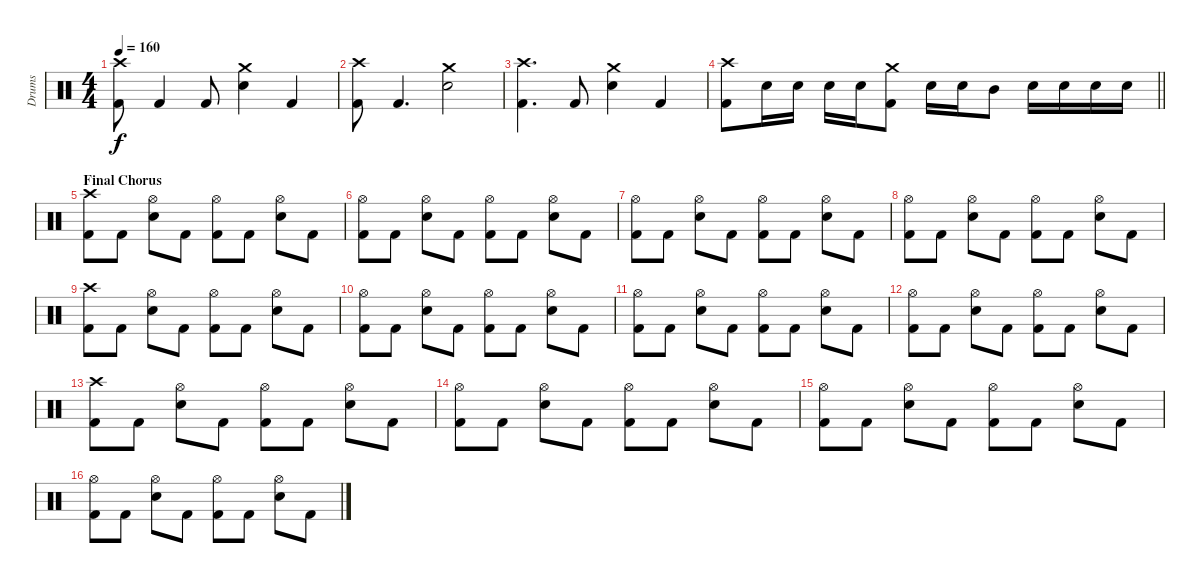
\track ("Drums" "Drums") {instrument percussion}
\staff {score}
\articulation defaults
\ts (4 4)
\tempo 160
\clef neutral
\ks c
("Kick (hit) 2" "Crash high (hit)").8{dy f} "Kick (hit) 2".4 "Kick (hit) 2".8 ("Electric Snare (hit)" "Crash medium (hit)").4 "Kick (hit) 2".4 |
("Kick (hit) 2" "Crash high (hit)").8 "Kick (hit) 2".4{d} ("Electric Snare (hit)" "Crash medium (hit)").2 |
("Kick (hit) 2" "Crash high (hit)").4{d} "Kick (hit) 2".8 ("Electric Snare (hit)" "Crash medium (hit)").4 "Kick (hit) 2".4 |
\barLineRight lightlight
("Kick (hit) 2" "Crash high (hit)").8 "Electric Snare (hit)".16 "Electric Snare (hit)".16 "Electric Snare (hit)".16 "Electric Snare (hit)".16 ("Kick (hit) 2" "Crash medium (hit)").8 "Electric Snare (hit)".16 "Electric Snare (hit)".16 "Mid Tom (hit)".8 "Electric Snare (hit)".16 "Electric Snare (hit)".16 "Electric Snare (hit)".16 "Electric Snare (hit)".16 |
\section ("" "Final Chorus")
("Kick (hit) 2" "Crash high (hit)").8 "Kick (hit) 2".8 ("Electric Snare (hit)" "Hi-Hat (open)").8 "Kick (hit) 2".8 ("Kick (hit) 2" "Hi-Hat (open)").8 "Kick (hit) 2".8 ("Electric Snare (hit)" "Hi-Hat (open)").8 "Kick (hit) 2".8 |
("Kick (hit) 2" "Hi-Hat (open)").8 "Kick (hit) 2".8 ("Electric Snare (hit)" "Hi-Hat (open)").8 "Kick (hit) 2".8 ("Kick (hit) 2" "Hi-Hat (open)").8 "Kick (hit) 2".8 ("Electric Snare (hit)" "Hi-Hat (open)").8 "Kick (hit) 2".8 |
("Kick (hit) 2" "Hi-Hat (open)").8 "Kick (hit) 2".8 ("Electric Snare (hit)" "Hi-Hat (open)").8 "Kick (hit) 2".8 ("Kick (hit) 2" "Hi-Hat (open)").8 "Kick (hit) 2".8 ("Electric Snare (hit)" "Hi-Hat (open)").8 "Kick (hit) 2".8 |
("Kick (hit) 2" "Hi-Hat (open)").8 "Kick (hit) 2".8 ("Electric Snare (hit)" "Hi-Hat (open)").8 "Kick (hit) 2".8 ("Kick (hit) 2" "Hi-Hat (open)").8 "Kick (hit) 2".8 ("Electric Snare (hit)" "Hi-Hat (open)").8 "Kick (hit) 2".8 |
("Kick (hit) 2" "Crash high (hit)").8 "Kick (hit) 2".8 ("Electric Snare (hit)" "Hi-Hat (open)").8 "Kick (hit) 2".8 ("Kick (hit) 2" "Hi-Hat (open)").8 "Kick (hit) 2".8 ("Electric Snare (hit)" "Hi-Hat (open)").8 "Kick (hit) 2".8 |
("Kick (hit) 2" "Hi-Hat (open)").8 "Kick (hit) 2".8 ("Electric Snare (hit)" "Hi-Hat (open)").8 "Kick (hit) 2".8 ("Kick (hit) 2" "Hi-Hat (open)").8 "Kick (hit) 2".8 ("Electric Snare (hit)" "Hi-Hat (open)").8 "Kick (hit) 2".8 |
("Kick (hit) 2" "Hi-Hat (open)").8 "Kick (hit) 2".8 ("Electric Snare (hit)" "Hi-Hat (open)").8 "Kick (hit) 2".8 ("Kick (hit) 2" "Hi-Hat (open)").8 "Kick (hit) 2".8 ("Electric Snare (hit)" "Hi-Hat (open)").8 "Kick (hit) 2".8 |
("Kick (hit) 2" "Hi-Hat (open)").8 "Kick (hit) 2".8 ("Electric Snare (hit)" "Hi-Hat (open)").8 "Kick (hit) 2".8 ("Kick (hit) 2" "Hi-Hat (open)").8 "Kick (hit) 2".8 ("Electric Snare (hit)" "Hi-Hat (open)").8 "Kick (hit) 2".8 |
("Kick (hit) 2" "Crash high (hit)").8 "Kick (hit) 2".8 ("Electric Snare (hit)" "Hi-Hat (open)").8 "Kick (hit) 2".8 ("Kick (hit) 2" "Hi-Hat (open)").8 "Kick (hit) 2".8 ("Electric Snare (hit)" "Hi-Hat (open)").8 "Kick (hit) 2".8 |
("Kick (hit) 2" "Hi-Hat (open)").8 "Kick (hit) 2".8 ("Electric Snare (hit)" "Hi-Hat (open)").8 "Kick (hit) 2".8 ("Kick (hit) 2" "Hi-Hat (open)").8 "Kick (hit) 2".8 ("Electric Snare (hit)" "Hi-Hat (open)").8 "Kick (hit) 2".8 |
("Kick (hit) 2" "Hi-Hat (open)").8 "Kick (hit) 2".8 ("Electric Snare (hit)" "Hi-Hat (open)").8 "Kick (hit) 2".8 ("Kick (hit) 2" "Hi-Hat (open)").8 "Kick (hit) 2".8 ("Electric Snare (hit)" "Hi-Hat (open)").8 "Kick (hit) 2".8 |
("Kick (hit) 2" "Hi-Hat (open)").8 "Kick (hit) 2".8 ("Electric Snare (hit)" "Hi-Hat (open)").8 "Kick (hit) 2".8 ("Kick (hit) 2" "Hi-Hat (open)").8 "Kick (hit) 2".8 ("Electric Snare (hit)" "Hi-Hat (open)").8 "Kick (hit) 2".8
